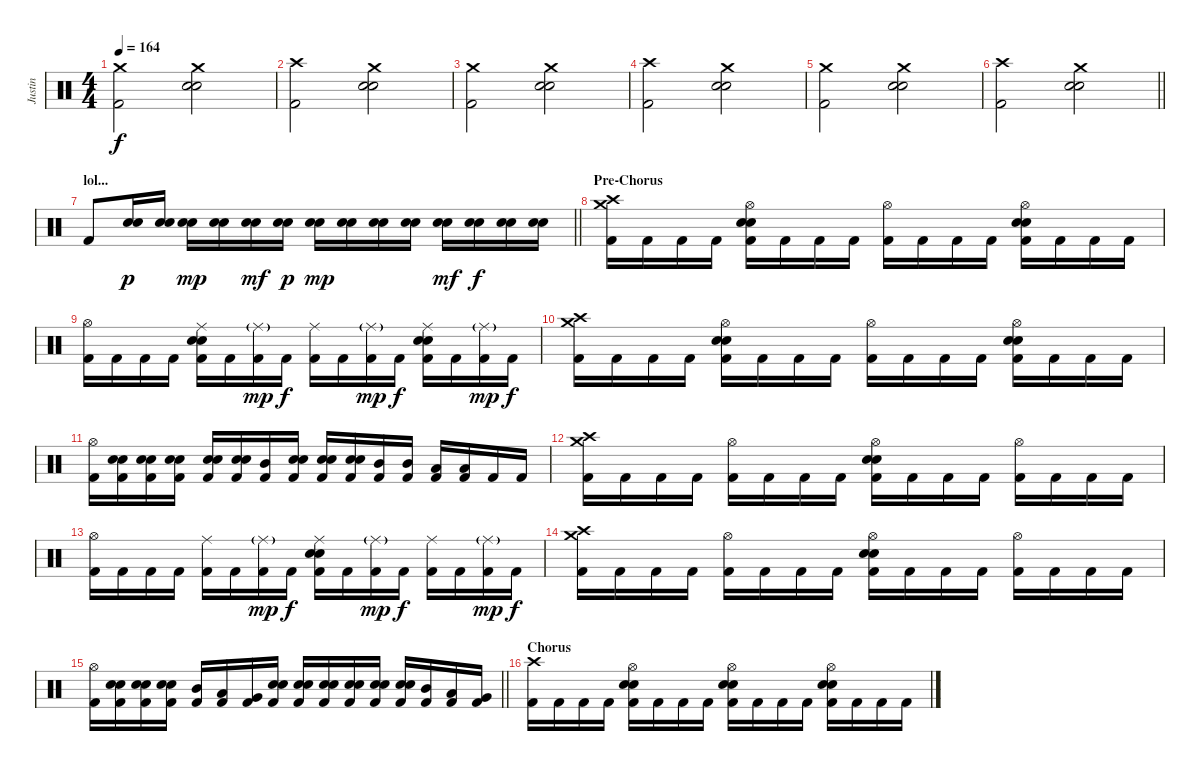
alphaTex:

\track ("Justin" "Justin") {instrument percussion}
\staff {score}
\articulation defaults
\ts (4 4)
\tempo 164
\clef neutral
\ks c
("Crash medium (hit)" "Kick (hit) 2").2{dy f} ("Crash medium (hit)" "Electric Snare (hit)" "Snare (hit) 2").2 |
("Crash high (hit)" "Kick (hit) 2").2 ("Crash medium (hit)" "Electric Snare (hit)" "Snare (hit) 2").2 |
("Crash medium (hit)" "Kick (hit) 2").2 ("Crash medium (hit)" "Electric Snare (hit)" "Snare (hit) 2").2 |
("Crash high (hit)" "Kick (hit) 2").2 ("Crash medium (hit)" "Electric Snare (hit)" "Snare (hit) 2").2 |
("Crash medium (hit)" "Kick (hit) 2").2 ("Crash medium (hit)" "Electric Snare (hit)" "Snare (hit) 2").2 |
\barLineRight lightlight
("Crash high (hit)" "Kick (hit) 2").2 ("Crash medium (hit)" "Electric Snare (hit)" "Snare (hit) 2").2 |
\section ("" "lol...")
\barLineRight lightlight "Kick (hit) 2".8
("Electric Snare (hit)" "Snare (hit) 2").16{dy p} ("Electric Snare (hit)" "Snare (hit) 2").16 ("Electric Snare (hit)" "Snare (hit) 2").16{dy mp} ("Electric Snare (hit)" "Snare (hit) 2").16 ("Electric Snare (hit)" "Snare (hit) 2").16{dy mf} ("Electric Snare (hit)" "Snare (hit) 2").16{dy p} ("Electric Snare (hit)" "Snare (hit) 2").16{dy mp} ("Electric Snare (hit)" "Snare (hit) 2").16 ("Electric Snare (hit)" "Snare (hit) 2").16 ("Electric Snare (hit)" "Snare (hit) 2").16 ("Electric Snare (hit)" "Snare (hit) 2").16{dy mf} ("Electric Snare (hit)" "Snare (hit) 2").16{dy f} ("Electric Snare (hit)" "Snare (hit) 2").16 ("Electric Snare (hit)" "Snare (hit) 2").16 |
\section ("" "Pre-Chorus")
("Crash medium (hit)" "Crash high (hit)" "Kick (hit) 2").16 "Kick (hit) 2".16 "Kick (hit) 2".16 "Kick (hit) 2".16 ("Hi-Hat (open)" "Electric Snare (hit)" "Snare (hit) 2" "Kick (hit) 2").16 "Kick (hit) 2".16 "Kick (hit) 2".16 "Kick (hit) 2".16 ("Hi-Hat (open)" "Kick (hit) 2").16 "Kick (hit) 2".16 "Kick (hit) 2".16 "Kick (hit) 2".16 ("Hi-Hat (open)" "Electric Snare (hit)" "Snare (hit) 2" "Kick (hit) 2").16 "Kick (hit) 2".16 "Kick (hit) 2".16 "Kick (hit) 2".16 |
("Hi-Hat (open)" "Kick (hit) 2").16 "Kick (hit) 2".16 "Kick (hit) 2".16 "Kick (hit) 2".16 ("Ride (middle)" "Electric Snare (hit)" "Snare (hit) 2" "Kick (hit) 2").16 "Kick (hit) 2".16 ("Ride (middle)"{g} "Kick (hit) 2").16{dy mp} "Kick (hit) 2".16{dy f} ("Ride (middle)" "Kick (hit) 2").16 "Kick (hit) 2".16 ("Ride (middle)"{g} "Kick (hit) 2").16{dy mp} "Kick (hit) 2".16{dy f} ("Ride (middle)" "Electric Snare (hit)" "Snare (hit) 2" "Kick (hit) 2").16 "Kick (hit) 2".16 ("Ride (middle)"{g} "Kick (hit) 2").16{dy mp} "Kick (hit) 2".16{dy f} |
("Crash medium (hit)" "Crash high (hit)" "Kick (hit) 2").16 "Kick (hit) 2".16 "Kick (hit) 2".16 "Kick (hit) 2".16 ("Hi-Hat (open)" "Electric Snare (hit)" "Snare (hit) 2" "Kick (hit) 2").16 "Kick (hit) 2".16 "Kick (hit) 2".16 "Kick (hit) 2".16 ("Hi-Hat (open)" "Kick (hit) 2").16 "Kick (hit) 2".16 "Kick (hit) 2".16 "Kick (hit) 2".16 ("Hi-Hat (open)" "Electric Snare (hit)" "Snare (hit) 2" "Kick (hit) 2").16 "Kick (hit) 2".16 "Kick (hit) 2".16 "Kick (hit) 2".16 |
("Hi-Hat (open)" "Kick (hit) 2").16 ("Electric Snare (hit)" "Snare (hit) 2" "Kick (hit) 2").16 ("Electric Snare (hit)" "Snare (hit) 2" "Kick (hit) 2").16 ("Electric Snare (hit)" "Snare (hit) 2" "Kick (hit) 2").16 ("Electric Snare (hit)" "Snare (hit) 2" "Kick (hit) 2").16 ("Electric Snare (hit)" "Snare (hit) 2" "Kick (hit) 2").16 ("Mid Tom (hit)" "Kick (hit) 2").16 ("Electric Snare (hit)" "Snare (hit) 2" "Kick (hit) 2").16 ("Electric Snare (hit)" "Snare (hit) 2" "Kick (hit) 2").16 ("Electric Snare (hit)" "Snare (hit) 2" "Kick (hit) 2").16 ("Mid Tom (hit)" "Kick (hit) 2").16 ("Mid Tom (hit)" "Kick (hit) 2").16 ("Low Tom (hit)" "Kick (hit) 2").16 ("Low Tom (hit)" "Kick (hit) 2").16 "Kick (hit) 2".16 "Kick (hit) 2".16 |
("Crash medium (hit)" "Crash high (hit)" "Kick (hit) 2").16 "Kick (hit) 2".16 "Kick (hit) 2".16 "Kick (hit) 2".16 ("Hi-Hat (open)" "Kick (hit) 2").16 "Kick (hit) 2".16 "Kick (hit) 2".16 "Kick (hit) 2".16 ("Hi-Hat (open)" "Electric Snare (hit)" "Snare (hit) 2" "Kick (hit) 2").16 "Kick (hit) 2".16 "Kick (hit) 2".16 "Kick (hit) 2".16 ("Hi-Hat (open)" "Kick (hit) 2").16 "Kick (hit) 2".16 "Kick (hit) 2".16 "Kick (hit) 2".16 |
("Hi-Hat (open)" "Kick (hit) 2").16 "Kick (hit) 2".16 "Kick (hit) 2".16 "Kick (hit) 2".16 ("Ride (middle)" "Kick (hit) 2").16 "Kick (hit) 2".16 ("Ride (middle)"{g} "Kick (hit) 2").16{dy mp} "Kick (hit) 2".16{dy f} ("Ride (middle)" "Electric Snare (hit)" "Snare (hit) 2" "Kick (hit) 2").16 "Kick (hit) 2".16 ("Ride (middle)"{g} "Kick (hit) 2").16{dy mp} "Kick (hit) 2".16{dy f} ("Ride (middle)" "Kick (hit) 2").16 "Kick (hit) 2".16 ("Ride (middle)"{g} "Kick (hit) 2").16{dy mp} "Kick (hit) 2".16{dy f} |
("Crash medium (hit)" "Crash high (hit)" "Kick (hit) 2").16 "Kick (hit) 2".16 "Kick (hit) 2".16 "Kick (hit) 2".16 ("Hi-Hat (open)" "Kick (hit) 2").16 "Kick (hit) 2".16 "Kick (hit) 2".16 "Kick (hit) 2".16 ("Hi-Hat (open)" "Electric Snare (hit)" "Snare (hit) 2" "Kick (hit) 2").16 "Kick (hit) 2".16 "Kick (hit) 2".16 "Kick (hit) 2".16 ("Hi-Hat (open)" "Kick (hit) 2").16 "Kick (hit) 2".16 "Kick (hit) 2".16 "Kick (hit) 2".16 |
\barLineRight lightlight
("Hi-Hat (open)" "Kick (hit) 2").16 ("Electric Snare (hit)" "Snare (hit) 2" "Kick (hit) 2").16 ("Electric Snare (hit)" "Snare (hit) 2" "Kick (hit) 2").16 ("Electric Snare (hit)" "Snare (hit) 2" "Kick (hit) 2").16 ("Mid Tom (hit)" "Kick (hit) 2").16 ("Low Tom (hit)" "Kick (hit) 2").16 ("Very Low Tom (hit)" "Kick (hit) 2").16 ("Electric Snare (hit)" "Snare (hit) 2" "Kick (hit) 2").16 ("Electric Snare (hit)" "Snare (hit) 2" "Kick (hit) 2").16 ("Electric Snare (hit)" "Snare (hit) 2" "Kick (hit) 2").16 ("Electric Snare (hit)" "Snare (hit) 2" "Kick (hit) 2").16 ("Electric Snare (hit)" "Snare (hit) 2" "Kick (hit) 2").16 ("Electric Snare (hit)" "Snare (hit) 2" "Kick (hit) 2").16 ("Mid Tom (hit)" "Kick (hit) 2").16 ("Low Tom (hit)" "Kick (hit) 2").16 ("Very Low Tom (hit)" "Kick (hit) 2").16 |
\section ("" "Chorus")
("Crash high (hit)" "Kick (hit) 2").16 "Kick (hit) 2".16 "Kick (hit) 2".16 "Kick (hit) 2".16 ("Hi-Hat (open)" "Electric Snare (hit)" "Snare (hit) 2" "Kick (hit) 2").16 "Kick (hit) 2".16 "Kick (hit) 2".16 "Kick (hit) 2".16 ("Hi-Hat (open)" "Electric Snare (hit)" "Snare (hit) 2" "Kick (hit) 2").16 "Kick (hit) 2".16 "Kick (hit) 2".16 "Kick (hit) 2".16 ("Hi-Hat (open)" "Electric Snare (hit)" "Snare (hit) 2" "Kick (hit) 2").16 "Kick (hit) 2".16 "Kick (hit) 2".16 "Kick (hit) 2".16
